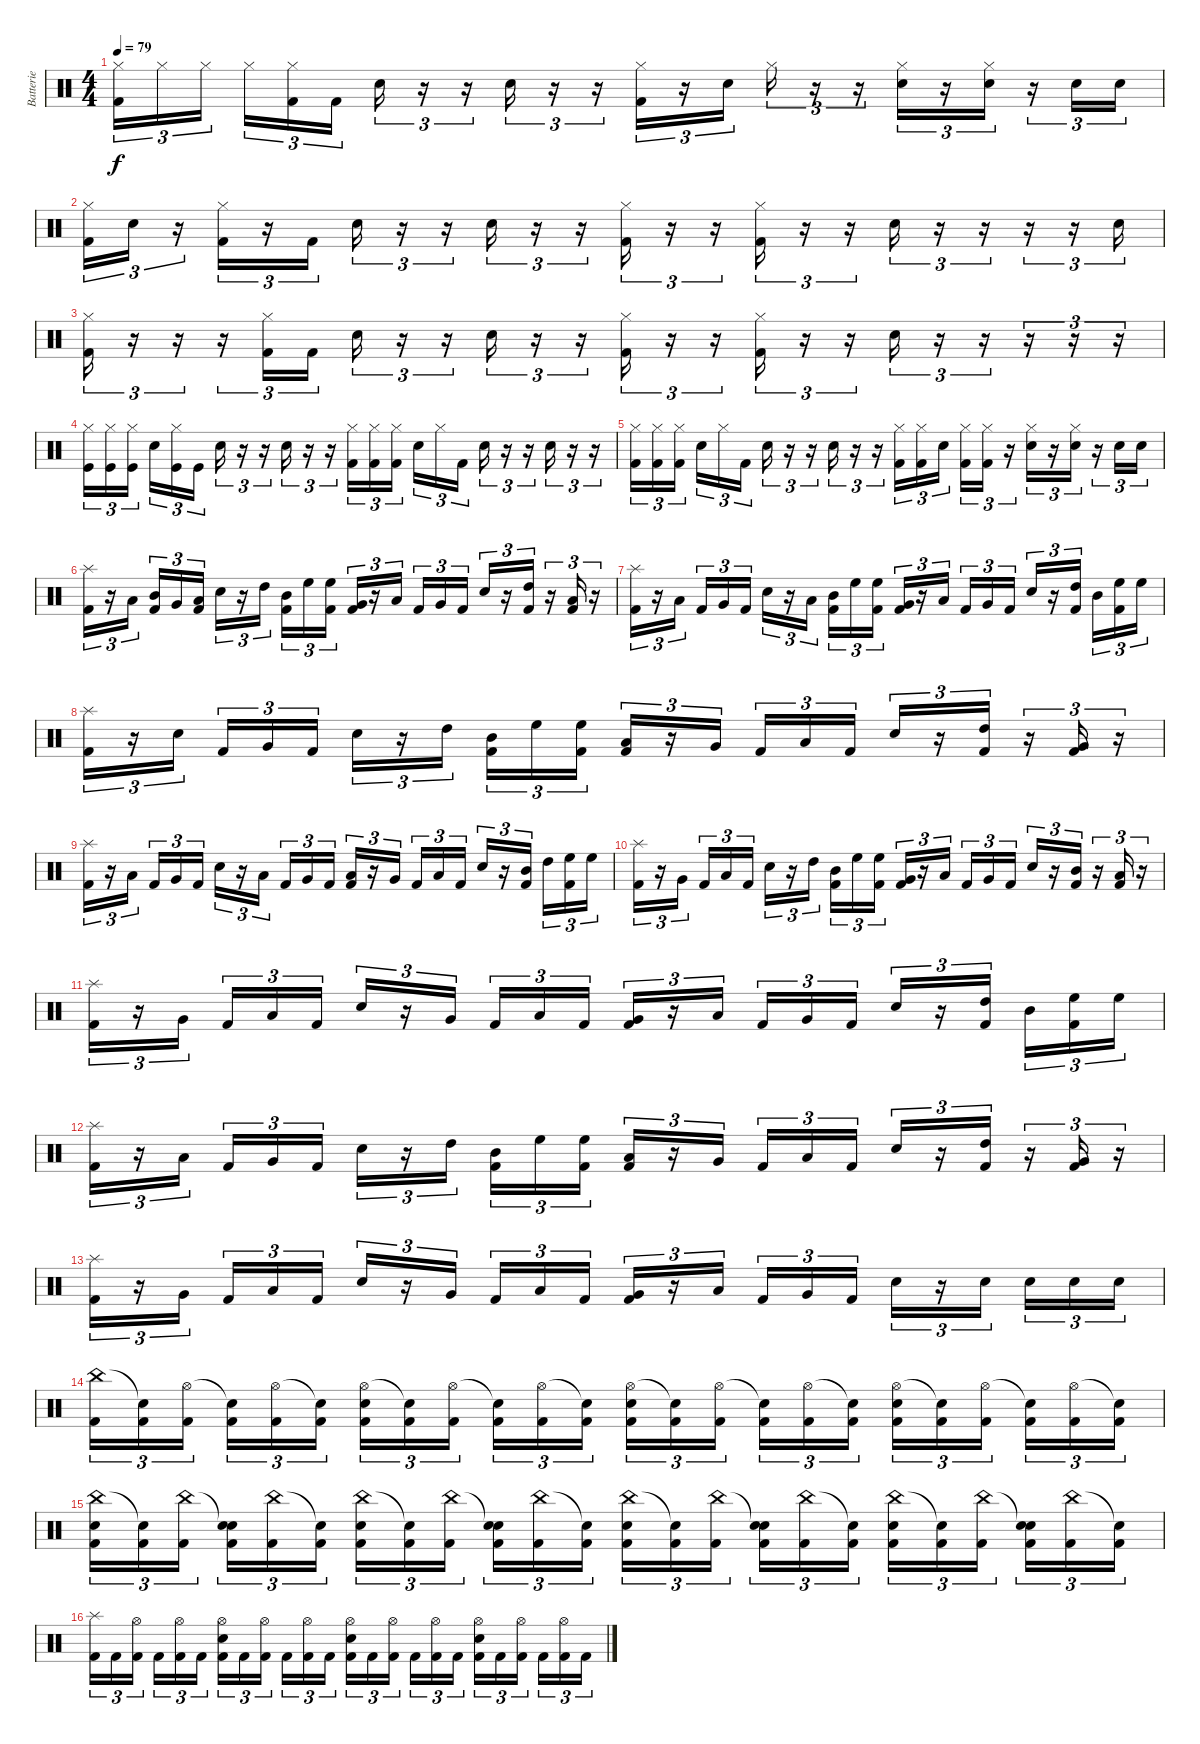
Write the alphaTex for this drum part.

\track ("Batterie" "Batterie") {instrument percussion}
\staff {score}
\articulation defaults
\ts (4 4)
\tempo 79
\clef neutral
\ks c
("Hi-Hat (closed)" "Kick (hit) 2").16{tu (3 2) dy f} "Hi-Hat (closed)".16{tu (3 2)} "Hi-Hat (closed)".16{tu (3 2)} "Hi-Hat (closed)".16{tu (3 2)} ("Hi-Hat (closed)" "Kick (hit) 2").16{tu (3 2)} "Kick (hit) 2".16{tu (3 2)} "Snare (hit) 2".16{tu (3 2)} r.16{tu (3 2)} r.16{tu (3 2)} "Snare (hit) 2".16{tu (3 2)} r.16{tu (3 2)} r.16{tu (3 2)} ("Hi-Hat (closed)" "Kick (hit) 2").16{tu (3 2)} r.16{tu (3 2)} "Snare (hit) 2".16{tu (3 2)} "Hi-Hat (closed)".16{tu (3 2)} r.16{tu (3 2)} r.16{tu (3 2)} ("Hi-Hat (closed)" "Snare (hit) 2").16{tu (3 2)} r.16{tu (3 2)} ("Hi-Hat (closed)" "Snare (hit) 2").16{tu (3 2)} r.16{tu (3 2)} "Snare (hit) 2".16{tu (3 2)} "Snare (hit) 2".16{tu (3 2)} |
("Hi-Hat (closed)" "Kick (hit) 2").16{tu (3 2)} "Snare (hit) 2".16{tu (3 2)} r.16{tu (3 2)} ("Hi-Hat (closed)" "Kick (hit) 2").16{tu (3 2)} r.16{tu (3 2)} "Kick (hit) 2".16{tu (3 2)} "Snare (hit) 2".16{tu (3 2)} r.16{tu (3 2)} r.16{tu (3 2)} "Snare (hit) 2".16{tu (3 2)} r.16{tu (3 2)} r.16{tu (3 2)} ("Hi-Hat (closed)" "Kick (hit) 2").16{tu (3 2)} r.16{tu (3 2)} r.16{tu (3 2)} ("Hi-Hat (closed)" "Kick (hit) 2").16{tu (3 2)} r.16{tu (3 2)} r.16{tu (3 2)} "Snare (hit) 2".16{tu (3 2)} r.16{tu (3 2)} r.16{tu (3 2)} r.16{tu (3 2)} r.16{tu (3 2)} "Snare (hit) 2".16{tu (3 2)} |
("Hi-Hat (closed)" "Kick (hit) 2").16{tu (3 2)} r.16{tu (3 2)} r.16{tu (3 2)} r.16{tu (3 2)} ("Hi-Hat (closed)" "Kick (hit) 2").16{tu (3 2)} "Kick (hit) 2".16{tu (3 2)} "Snare (hit) 2".16{tu (3 2)} r.16{tu (3 2)} r.16{tu (3 2)} "Snare (hit) 2".16{tu (3 2)} r.16{tu (3 2)} r.16{tu (3 2)} ("Hi-Hat (closed)" "Kick (hit) 2").16{tu (3 2)} r.16{tu (3 2)} r.16{tu (3 2)} ("Hi-Hat (closed)" "Kick (hit) 2").16{tu (3 2)} r.16{tu (3 2)} r.16{tu (3 2)} "Snare (hit) 2".16{tu (3 2)} r.16{tu (3 2)} r.16{tu (3 2)} r.16{tu (3 2)} r.16{tu (3 2)} r.16{tu (3 2)} |
("Hi-Hat (closed)" "Kick (hit)").16{tu (3 2)} ("Hi-Hat (closed)" "Kick (hit)").16{tu (3 2)} ("Hi-Hat (closed)" "Kick (hit)").16{tu (3 2)} "Snare (hit) 2".16{tu (3 2)} ("Hi-Hat (closed)" "Kick (hit)").16{tu (3 2)} "Kick (hit)".16{tu (3 2)} "Snare (hit) 2".16{tu (3 2)} r.16{tu (3 2)} r.16{tu (3 2)} "Snare (hit) 2".16{tu (3 2)} r.16{tu (3 2)} r.16{tu (3 2)} ("Hi-Hat (closed)" "Kick (hit) 2").16{tu (3 2)} ("Hi-Hat (closed)" "Kick (hit) 2").16{tu (3 2)} ("Hi-Hat (closed)" "Kick (hit) 2").16{tu (3 2)} "Snare (hit) 2".16{tu (3 2)} "Hi-Hat (closed)".16{tu (3 2)} "Kick (hit) 2".16{tu (3 2)} "Snare (hit) 2".16{tu (3 2)} r.16{tu (3 2)} r.16{tu (3 2)} "Snare (hit) 2".16{tu (3 2)} r.16{tu (3 2)} r.16{tu (3 2)} |
("Hi-Hat (closed)" "Kick (hit) 2").16{tu (3 2)} ("Hi-Hat (closed)" "Kick (hit) 2").16{tu (3 2)} ("Hi-Hat (closed)" "Kick (hit) 2").16{tu (3 2)} "Snare (hit) 2".16{tu (3 2)} "Hi-Hat (closed)".16{tu (3 2)} "Kick (hit) 2".16{tu (3 2)} "Snare (hit) 2".16{tu (3 2)} r.16{tu (3 2)} r.16{tu (3 2)} "Snare (hit) 2".16{tu (3 2)} r.16{tu (3 2)} r.16{tu (3 2)} ("Hi-Hat (closed)" "Kick (hit) 2").16{tu (3 2)} ("Hi-Hat (closed)" "Kick (hit) 2").16{tu (3 2)} "Snare (hit) 2".16{tu (3 2)} ("Hi-Hat (closed)" "Kick (hit) 2").16{tu (3 2)} ("Hi-Hat (closed)" "Kick (hit) 2").16{tu (3 2)} r.16{tu (3 2)} ("Hi-Hat (closed)" "Snare (hit) 2").16{tu (3 2)} r.16{tu (3 2)} ("Hi-Hat (closed)" "Snare (hit) 2").16{tu (3 2)} r.16{tu (3 2)} "Snare (hit) 2".16{tu (3 2)} "Snare (hit) 2".16{tu (3 2)} |
("Splash (hit)" "Kick (hit) 2").16{tu (3 2)} r.16{tu (3 2)} "Low Floor Tom (hit)".16{tu (3 2)} ("Mid Tom (hit)" "Kick (hit) 2").16{tu (3 2)} "Very Low Tom (hit)".16{tu (3 2)} ("Low Floor Tom (hit)" "Kick (hit) 2").16{tu (3 2)} "Snare (hit) 2".16{tu (3 2)} r.16{tu (3 2)} "High Tom (hit)".16{tu (3 2)} ("Mid Tom (hit)" "Kick (hit) 2").16{tu (3 2)} "High Floor Tom (hit)".16{tu (3 2)} ("High Floor Tom (hit)" "Kick (hit) 2").16{tu (3 2)} ("Very Low Tom (hit)" "Kick (hit) 2").16{tu (3 2)} r.16{tu (3 2)} "Low Floor Tom (hit)".16{tu (3 2)} "Kick (hit) 2".16{tu (3 2)} "Very Low Tom (hit)".16{tu (3 2)} "Kick (hit) 2".16{tu (3 2)} "Snare (hit) 2".16{tu (3 2)} r.16{tu (3 2)} ("High Tom (hit)" "Kick (hit) 2").16{tu (3 2)} r.16{tu (3 2)} ("Low Floor Tom (hit)" "Kick (hit) 2").16{tu (3 2)} r.16{tu (3 2)} |
("Splash (hit)" "Kick (hit) 2").16{tu (3 2)} r.16{tu (3 2)} "Low Floor Tom (hit)".16{tu (3 2)} "Kick (hit) 2".16{tu (3 2)} "Very Low Tom (hit)".16{tu (3 2)} "Kick (hit) 2".16{tu (3 2)} "Snare (hit) 2".16{tu (3 2)} r.16{tu (3 2)} "Low Floor Tom (hit)".16{tu (3 2)} ("Mid Tom (hit)" "Kick (hit) 2").16{tu (3 2)} "High Floor Tom (hit)".16{tu (3 2)} ("High Floor Tom (hit)" "Kick (hit) 2").16{tu (3 2)} ("Very Low Tom (hit)" "Kick (hit) 2").16{tu (3 2)} r.16{tu (3 2)} "Low Floor Tom (hit)".16{tu (3 2)} "Kick (hit) 2".16{tu (3 2)} "Very Low Tom (hit)".16{tu (3 2)} "Kick (hit) 2".16{tu (3 2)} "Snare (hit) 2".16{tu (3 2)} r.16{tu (3 2)} ("High Tom (hit)" "Kick (hit) 2").16{tu (3 2)} "Mid Tom (hit)".16{tu (3 2)} ("High Floor Tom (hit)" "Kick (hit) 2").16{tu (3 2)} "High Floor Tom (hit)".16{tu (3 2)} |
("Splash (hit)" "Kick (hit) 2").16{tu (3 2)} r.16{tu (3 2)} "Electric Snare (hit)".16{tu (3 2)} "Kick (hit) 2".16{tu (3 2)} "Very Low Tom (hit)".16{tu (3 2)} "Kick (hit) 2".16{tu (3 2)} "Snare (hit) 2".16{tu (3 2)} r.16{tu (3 2)} "High Tom (hit)".16{tu (3 2)} ("Mid Tom (hit)" "Kick (hit) 2").16{tu (3 2)} "High Floor Tom (hit)".16{tu (3 2)} ("High Floor Tom (hit)" "Kick (hit) 2").16{tu (3 2)} ("Low Floor Tom (hit)" "Kick (hit) 2").16{tu (3 2)} r.16{tu (3 2)} "Very Low Tom (hit)".16{tu (3 2)} "Kick (hit) 2".16{tu (3 2)} "Low Floor Tom (hit)".16{tu (3 2)} "Kick (hit) 2".16{tu (3 2)} "Snare (hit) 2".16{tu (3 2)} r.16{tu (3 2)} ("High Tom (hit)" "Kick (hit) 2").16{tu (3 2)} r.16{tu (3 2)} ("Very Low Tom (hit)" "Kick (hit) 2").16{tu (3 2)} r.16{tu (3 2)} |
("Splash (hit)" "Kick (hit) 2").16{tu (3 2)} r.16{tu (3 2)} "Low Floor Tom (hit)".16{tu (3 2)} "Kick (hit) 2".16{tu (3 2)} "Very Low Tom (hit)".16{tu (3 2)} "Kick (hit) 2".16{tu (3 2)} "Snare (hit) 2".16{tu (3 2)} r.16{tu (3 2)} "Low Floor Tom (hit)".16{tu (3 2)} "Kick (hit) 2".16{tu (3 2)} "Very Low Tom (hit)".16{tu (3 2)} "Kick (hit) 2".16{tu (3 2)} ("Low Floor Tom (hit)" "Kick (hit) 2").16{tu (3 2)} r.16{tu (3 2)} "Very Low Tom (hit)".16{tu (3 2)} "Kick (hit) 2".16{tu (3 2)} "Low Floor Tom (hit)".16{tu (3 2)} "Kick (hit) 2".16{tu (3 2)} "Snare (hit) 2".16{tu (3 2)} r.16{tu (3 2)} ("Mid Tom (hit)" "Kick (hit) 2").16{tu (3 2)} "High Tom (hit)".16{tu (3 2)} ("High Floor Tom (hit)" "Kick (hit) 2").16{tu (3 2)} "High Floor Tom (hit)".16{tu (3 2)} |
("Splash (hit)" "Kick (hit) 2").16{tu (3 2)} r.16{tu (3 2)} "Very Low Tom (hit)".16{tu (3 2)} "Kick (hit) 2".16{tu (3 2)} "Low Floor Tom (hit)".16{tu (3 2)} "Kick (hit) 2".16{tu (3 2)} "Snare (hit) 2".16{tu (3 2)} r.16{tu (3 2)} "High Tom (hit)".16{tu (3 2)} ("Mid Tom (hit)" "Kick (hit) 2").16{tu (3 2)} "High Floor Tom (hit)".16{tu (3 2)} ("High Floor Tom (hit)" "Kick (hit) 2").16{tu (3 2)} ("Very Low Tom (hit)" "Kick (hit) 2").16{tu (3 2)} r.16{tu (3 2)} "Low Floor Tom (hit)".16{tu (3 2)} "Kick (hit) 2".16{tu (3 2)} "Very Low Tom (hit)".16{tu (3 2)} "Kick (hit) 2".16{tu (3 2)} "Snare (hit) 2".16{tu (3 2)} r.16{tu (3 2)} ("Mid Tom (hit)" "Kick (hit) 2").16{tu (3 2)} r.16{tu (3 2)} ("Low Floor Tom (hit)" "Kick (hit) 2").16{tu (3 2)} r.16{tu (3 2)} |
("Splash (hit)" "Kick (hit) 2").16{tu (3 2)} r.16{tu (3 2)} "Very Low Tom (hit)".16{tu (3 2)} "Kick (hit) 2".16{tu (3 2)} "Low Floor Tom (hit)".16{tu (3 2)} "Kick (hit) 2".16{tu (3 2)} "Snare (hit) 2".16{tu (3 2)} r.16{tu (3 2)} "Very Low Tom (hit)".16{tu (3 2)} "Kick (hit) 2".16{tu (3 2)} "Low Floor Tom (hit)".16{tu (3 2)} "Kick (hit) 2".16{tu (3 2)} ("Very Low Tom (hit)" "Kick (hit) 2").16{tu (3 2)} r.16{tu (3 2)} "Low Floor Tom (hit)".16{tu (3 2)} "Kick (hit) 2".16{tu (3 2)} "Very Low Tom (hit)".16{tu (3 2)} "Kick (hit) 2".16{tu (3 2)} "Snare (hit) 2".16{tu (3 2)} r.16{tu (3 2)} ("High Tom (hit)" "Kick (hit) 2").16{tu (3 2)} "Mid Tom (hit)".16{tu (3 2)} ("High Floor Tom (hit)" "Kick (hit) 2").16{tu (3 2)} "High Floor Tom (hit)".16{tu (3 2)} |
("Splash (hit)" "Kick (hit) 2").16{tu (3 2)} r.16{tu (3 2)} "Low Floor Tom (hit)".16{tu (3 2)} "Kick (hit) 2".16{tu (3 2)} "Very Low Tom (hit)".16{tu (3 2)} "Kick (hit) 2".16{tu (3 2)} "Snare (hit) 2".16{tu (3 2)} r.16{tu (3 2)} "High Tom (hit)".16{tu (3 2)} ("Mid Tom (hit)" "Kick (hit) 2").16{tu (3 2)} "High Floor Tom (hit)".16{tu (3 2)} ("High Floor Tom (hit)" "Kick (hit) 2").16{tu (3 2)} ("Low Floor Tom (hit)" "Kick (hit) 2").16{tu (3 2)} r.16{tu (3 2)} "Very Low Tom (hit)".16{tu (3 2)} "Kick (hit) 2".16{tu (3 2)} "Low Floor Tom (hit)".16{tu (3 2)} "Kick (hit) 2".16{tu (3 2)} "Snare (hit) 2".16{tu (3 2)} r.16{tu (3 2)} ("High Tom (hit)" "Kick (hit) 2").16{tu (3 2)} r.16{tu (3 2)} ("Very Low Tom (hit)" "Kick (hit) 2").16{tu (3 2)} r.16{tu (3 2)} |
("Splash (hit)" "Kick (hit) 2").16{tu (3 2)} r.16{tu (3 2)} "Very Low Tom (hit)".16{tu (3 2)} "Kick (hit) 2".16{tu (3 2)} "Low Floor Tom (hit)".16{tu (3 2)} "Kick (hit) 2".16{tu (3 2)} "Snare (hit) 2".16{tu (3 2)} r.16{tu (3 2)} "Very Low Tom (hit)".16{tu (3 2)} "Kick (hit) 2".16{tu (3 2)} "Low Floor Tom (hit)".16{tu (3 2)} "Kick (hit) 2".16{tu (3 2)} ("Very Low Tom (hit)" "Kick (hit) 2").16{tu (3 2)} r.16{tu (3 2)} "Low Floor Tom (hit)".16{tu (3 2)} "Kick (hit) 2".16{tu (3 2)} "Very Low Tom (hit)".16{tu (3 2)} "Kick (hit) 2".16{tu (3 2)} "Snare (hit) 2".16{tu (3 2)} r.16{tu (3 2)} "Snare (hit) 2".16{tu (3 2)} "Snare (hit) 2".16{tu (3 2)} "Snare (hit) 2".16{tu (3 2)} "Snare (hit) 2".16{tu (3 2)} |
("China (hit)" "Kick (hit) 2").16{tu (3 2)} ("Snare (hit)"{t} "Kick (hit) 2").16{tu (3 2)} ("Hi-Hat (open)" "Kick (hit) 2").16{tu (3 2)} ("Snare (hit)"{t} "Kick (hit) 2").16{tu (3 2)} ("Hi-Hat (open)" "Kick (hit) 2").16{tu (3 2)} ("Snare (hit)"{t} "Kick (hit) 2").16{tu (3 2)} ("Hi-Hat (open)" "Snare (hit) 2" "Kick (hit) 2").16{tu (3 2)} ("Snare (hit)"{t} "Kick (hit) 2").16{tu (3 2)} ("Hi-Hat (open)" "Kick (hit) 2").16{tu (3 2)} ("Snare (hit)"{t} "Kick (hit) 2").16{tu (3 2)} ("Hi-Hat (open)" "Kick (hit) 2").16{tu (3 2)} ("Snare (hit)"{t} "Kick (hit) 2").16{tu (3 2)} ("Hi-Hat (open)" "Snare (hit) 2" "Kick (hit) 2").16{tu (3 2)} ("Snare (hit)"{t} "Kick (hit) 2").16{tu (3 2)} ("Hi-Hat (open)" "Kick (hit) 2").16{tu (3 2)} ("Snare (hit)"{t} "Kick (hit) 2").16{tu (3 2)} ("Hi-Hat (open)" "Kick (hit) 2").16{tu (3 2)} ("Snare (hit)"{t} "Kick (hit) 2").16{tu (3 2)} ("Hi-Hat (open)" "Snare (hit) 2" "Kick (hit) 2").16{tu (3 2)} ("Snare (hit)"{t} "Kick (hit) 2").16{tu (3 2)} ("Hi-Hat (open)" "Kick (hit) 2").16{tu (3 2)} ("Snare (hit)"{t} "Kick (hit) 2").16{tu (3 2)} ("Hi-Hat (open)" "Kick (hit) 2").16{tu (3 2)} ("Snare (hit)"{t} "Kick (hit) 2").16{tu (3 2)} |
("China (hit)" "Snare (hit) 2" "Kick (hit) 2").16{tu (3 2)} ("Snare (hit)"{t} "Kick (hit) 2").16{tu (3 2)} ("China (hit)" "Kick (hit) 2").16{tu (3 2)} ("Snare (hit)"{t} "Snare (hit) 2" "Kick (hit) 2").16{tu (3 2)} ("China (hit)" "Kick (hit) 2").16{tu (3 2)} ("Snare (hit)"{t} "Kick (hit) 2").16{tu (3 2)} ("China (hit)" "Snare (hit) 2" "Kick (hit) 2").16{tu (3 2)} ("Snare (hit)"{t} "Kick (hit) 2").16{tu (3 2)} ("China (hit)" "Kick (hit) 2").16{tu (3 2)} ("Snare (hit)"{t} "Snare (hit) 2" "Kick (hit) 2").16{tu (3 2)} ("China (hit)" "Kick (hit) 2").16{tu (3 2)} ("Snare (hit)"{t} "Kick (hit) 2").16{tu (3 2)} ("China (hit)" "Snare (hit) 2" "Kick (hit) 2").16{tu (3 2)} ("Snare (hit)"{t} "Kick (hit) 2").16{tu (3 2)} ("China (hit)" "Kick (hit) 2").16{tu (3 2)} ("Snare (hit)"{t} "Snare (hit) 2" "Kick (hit) 2").16{tu (3 2)} ("China (hit)" "Kick (hit) 2").16{tu (3 2)} ("Snare (hit)"{t} "Kick (hit) 2").16{tu (3 2)} ("China (hit)" "Snare (hit) 2" "Kick (hit) 2").16{tu (3 2)} ("Snare (hit)"{t} "Kick (hit) 2").16{tu (3 2)} ("China (hit)" "Kick (hit) 2").16{tu (3 2)} ("Snare (hit)"{t} "Snare (hit) 2" "Kick (hit) 2").16{tu (3 2)} ("China (hit)" "Kick (hit) 2").16{tu (3 2)} ("Snare (hit)"{t} "Kick (hit) 2").16{tu (3 2)} |
("Splash (hit)" "Kick (hit) 2").16{tu (3 2)} "Kick (hit) 2".16{tu (3 2)} ("Hi-Hat (open)" "Kick (hit) 2").16{tu (3 2)} "Kick (hit) 2".16{tu (3 2)} ("Hi-Hat (open)" "Kick (hit) 2").16{tu (3 2)} "Kick (hit) 2".16{tu (3 2)} ("Hi-Hat (open)" "Snare (hit) 2" "Kick (hit) 2").16{tu (3 2)} "Kick (hit) 2".16{tu (3 2)} ("Hi-Hat (open)" "Kick (hit) 2").16{tu (3 2)} "Kick (hit) 2".16{tu (3 2)} ("Hi-Hat (open)" "Kick (hit) 2").16{tu (3 2)} "Kick (hit) 2".16{tu (3 2)} ("Hi-Hat (open)" "Snare (hit) 2" "Kick (hit) 2").16{tu (3 2)} "Kick (hit) 2".16{tu (3 2)} ("Hi-Hat (open)" "Kick (hit) 2").16{tu (3 2)} "Kick (hit) 2".16{tu (3 2)} ("Hi-Hat (open)" "Kick (hit) 2").16{tu (3 2)} "Kick (hit) 2".16{tu (3 2)} ("Hi-Hat (open)" "Snare (hit) 2" "Kick (hit) 2").16{tu (3 2)} "Kick (hit) 2".16{tu (3 2)} ("Hi-Hat (open)" "Kick (hit) 2").16{tu (3 2)} "Kick (hit) 2".16{tu (3 2)} ("Hi-Hat (open)" "Kick (hit) 2").16{tu (3 2)} "Kick (hit) 2".16{tu (3 2)}
